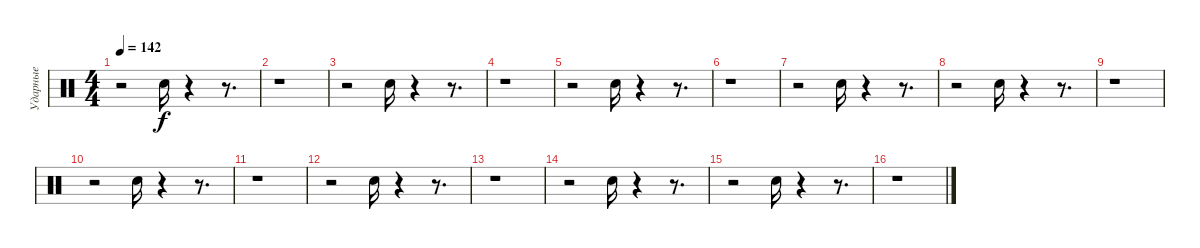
\track ("Ударные" "Ударные") {instrument percussion}
\staff {score}
\articulation defaults
\ts (4 4)
\tempo 142
\clef neutral
\ks c
r.2{dy f} "Snare (hit) 2".16 r.4 r.8{d} |
r.1 |
r.2 "Snare (hit) 2".16 r.4 r.8{d} |
r.1 |
r.2 "Snare (hit) 2".16 r.4 r.8{d} |
r.1 |
r.2 "Snare (hit) 2".16 r.4 r.8{d} |
r.2 "Snare (hit) 2".16 r.4 r.8{d} |
r.1 |
r.2 "Snare (hit) 2".16 r.4 r.8{d} |
r.1 |
r.2 "Snare (hit) 2".16 r.4 r.8{d} |
r.1 |
r.2 "Snare (hit) 2".16 r.4 r.8{d} |
r.2 "Snare (hit) 2".16 r.4 r.8{d} |
r.1
